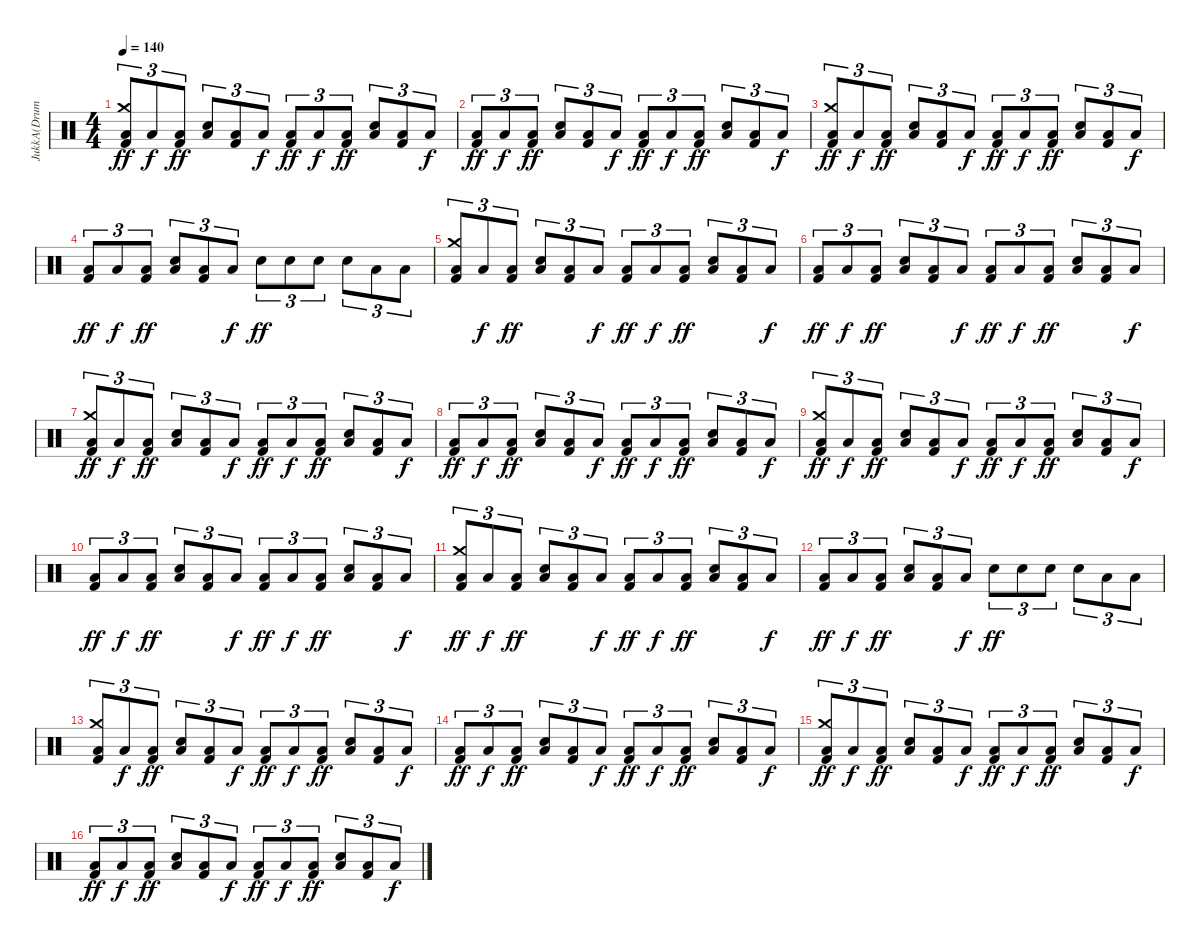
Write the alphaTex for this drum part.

\track ("JukkA(Drums)" "JukkA(Drum") {instrument percussion}
\staff {score}
\articulation defaults
\ts (4 4)
\tempo 140
\clef neutral
\ks c
("Kick (hit) 2" "Crash medium (hit)" "Low Floor Tom (hit)").8{tu (3 2) dy ff} "Low Floor Tom (hit)".8{tu (3 2) dy f} ("Kick (hit) 2" "Low Floor Tom (hit)").8{tu (3 2) dy ff} ("Snare (hit) 2" "Low Floor Tom (hit)").8{tu (3 2)} ("Kick (hit) 2" "Low Floor Tom (hit)").8{tu (3 2)} "Low Floor Tom (hit)".8{tu (3 2) dy f} ("Kick (hit) 2" "Low Floor Tom (hit)").8{tu (3 2) dy ff} "Low Floor Tom (hit)".8{tu (3 2) dy f} ("Kick (hit) 2" "Low Floor Tom (hit)").8{tu (3 2) dy ff} ("Snare (hit) 2" "Low Floor Tom (hit)").8{tu (3 2)} ("Kick (hit) 2" "Low Floor Tom (hit)").8{tu (3 2)} "Low Floor Tom (hit)".8{tu (3 2) dy f} |
("Kick (hit) 2" "Low Floor Tom (hit)").8{tu (3 2) dy ff} "Low Floor Tom (hit)".8{tu (3 2) dy f} ("Kick (hit) 2" "Low Floor Tom (hit)").8{tu (3 2) dy ff} ("Snare (hit) 2" "Low Floor Tom (hit)").8{tu (3 2)} ("Kick (hit) 2" "Low Floor Tom (hit)").8{tu (3 2)} "Low Floor Tom (hit)".8{tu (3 2) dy f} ("Kick (hit) 2" "Low Floor Tom (hit)").8{tu (3 2) dy ff} "Low Floor Tom (hit)".8{tu (3 2) dy f} ("Kick (hit) 2" "Low Floor Tom (hit)").8{tu (3 2) dy ff} ("Snare (hit) 2" "Low Floor Tom (hit)").8{tu (3 2)} ("Kick (hit) 2" "Low Floor Tom (hit)").8{tu (3 2)} "Low Floor Tom (hit)".8{tu (3 2) dy f} |
("Kick (hit) 2" "Crash medium (hit)" "Low Floor Tom (hit)").8{tu (3 2) dy ff} "Low Floor Tom (hit)".8{tu (3 2) dy f} ("Kick (hit) 2" "Low Floor Tom (hit)").8{tu (3 2) dy ff} ("Snare (hit) 2" "Low Floor Tom (hit)").8{tu (3 2)} ("Kick (hit) 2" "Low Floor Tom (hit)").8{tu (3 2)} "Low Floor Tom (hit)".8{tu (3 2) dy f} ("Kick (hit) 2" "Low Floor Tom (hit)").8{tu (3 2) dy ff} "Low Floor Tom (hit)".8{tu (3 2) dy f} ("Kick (hit) 2" "Low Floor Tom (hit)").8{tu (3 2) dy ff} ("Snare (hit) 2" "Low Floor Tom (hit)").8{tu (3 2)} ("Kick (hit) 2" "Low Floor Tom (hit)").8{tu (3 2)} "Low Floor Tom (hit)".8{tu (3 2) dy f} |
("Kick (hit) 2" "Low Floor Tom (hit)").8{tu (3 2) dy ff} "Low Floor Tom (hit)".8{tu (3 2) dy f} ("Kick (hit) 2" "Low Floor Tom (hit)").8{tu (3 2) dy ff} ("Snare (hit) 2" "Low Floor Tom (hit)").8{tu (3 2)} ("Kick (hit) 2" "Low Floor Tom (hit)").8{tu (3 2)} "Low Floor Tom (hit)".8{tu (3 2) dy f} "Snare (hit) 2".8{tu (3 2) dy ff} "Snare (hit) 2".8{tu (3 2)} "Snare (hit) 2".8{tu (3 2)} "Snare (hit) 2".8{tu (3 2)} "Low Tom (hit)".8{tu (3 2)} "Low Floor Tom (hit)".8{tu (3 2)} |
("Kick (hit) 2" "Crash medium (hit)" "Low Floor Tom (hit)").8{tu (3 2)} "Low Floor Tom (hit)".8{tu (3 2) dy f} ("Kick (hit) 2" "Low Floor Tom (hit)").8{tu (3 2) dy ff} ("Snare (hit) 2" "Low Floor Tom (hit)").8{tu (3 2)} ("Kick (hit) 2" "Low Floor Tom (hit)").8{tu (3 2)} "Low Floor Tom (hit)".8{tu (3 2) dy f} ("Kick (hit) 2" "Low Floor Tom (hit)").8{tu (3 2) dy ff} "Low Floor Tom (hit)".8{tu (3 2) dy f} ("Kick (hit) 2" "Low Floor Tom (hit)").8{tu (3 2) dy ff} ("Snare (hit) 2" "Low Floor Tom (hit)").8{tu (3 2)} ("Kick (hit) 2" "Low Floor Tom (hit)").8{tu (3 2)} "Low Floor Tom (hit)".8{tu (3 2) dy f} |
("Kick (hit) 2" "Low Floor Tom (hit)").8{tu (3 2) dy ff} "Low Floor Tom (hit)".8{tu (3 2) dy f} ("Kick (hit) 2" "Low Floor Tom (hit)").8{tu (3 2) dy ff} ("Snare (hit) 2" "Low Floor Tom (hit)").8{tu (3 2)} ("Kick (hit) 2" "Low Floor Tom (hit)").8{tu (3 2)} "Low Floor Tom (hit)".8{tu (3 2) dy f} ("Kick (hit) 2" "Low Floor Tom (hit)").8{tu (3 2) dy ff} "Low Floor Tom (hit)".8{tu (3 2) dy f} ("Kick (hit) 2" "Low Floor Tom (hit)").8{tu (3 2) dy ff} ("Snare (hit) 2" "Low Floor Tom (hit)").8{tu (3 2)} ("Kick (hit) 2" "Low Floor Tom (hit)").8{tu (3 2)} "Low Floor Tom (hit)".8{tu (3 2) dy f} |
("Kick (hit) 2" "Crash medium (hit)" "Low Floor Tom (hit)").8{tu (3 2) dy ff} "Low Floor Tom (hit)".8{tu (3 2) dy f} ("Kick (hit) 2" "Low Floor Tom (hit)").8{tu (3 2) dy ff} ("Snare (hit) 2" "Low Floor Tom (hit)").8{tu (3 2)} ("Kick (hit) 2" "Low Floor Tom (hit)").8{tu (3 2)} "Low Floor Tom (hit)".8{tu (3 2) dy f} ("Kick (hit) 2" "Low Floor Tom (hit)").8{tu (3 2) dy ff} "Low Floor Tom (hit)".8{tu (3 2) dy f} ("Kick (hit) 2" "Low Floor Tom (hit)").8{tu (3 2) dy ff} ("Snare (hit) 2" "Low Floor Tom (hit)").8{tu (3 2)} ("Kick (hit) 2" "Low Floor Tom (hit)").8{tu (3 2)} "Low Floor Tom (hit)".8{tu (3 2) dy f} |
("Kick (hit) 2" "Low Floor Tom (hit)").8{tu (3 2) dy ff} "Low Floor Tom (hit)".8{tu (3 2) dy f} ("Kick (hit) 2" "Low Floor Tom (hit)").8{tu (3 2) dy ff} ("Snare (hit) 2" "Low Floor Tom (hit)").8{tu (3 2)} ("Kick (hit) 2" "Low Floor Tom (hit)").8{tu (3 2)} "Low Floor Tom (hit)".8{tu (3 2) dy f} ("Kick (hit) 2" "Low Floor Tom (hit)").8{tu (3 2) dy ff} "Low Floor Tom (hit)".8{tu (3 2) dy f} ("Kick (hit) 2" "Low Floor Tom (hit)").8{tu (3 2) dy ff} ("Snare (hit) 2" "Low Floor Tom (hit)").8{tu (3 2)} ("Kick (hit) 2" "Low Floor Tom (hit)").8{tu (3 2)} "Low Floor Tom (hit)".8{tu (3 2) dy f} |
("Kick (hit) 2" "Crash medium (hit)" "Low Floor Tom (hit)").8{tu (3 2) dy ff volume 13} "Low Floor Tom (hit)".8{tu (3 2) dy f} ("Kick (hit) 2" "Low Floor Tom (hit)").8{tu (3 2) dy ff volume 12} ("Snare (hit) 2" "Low Floor Tom (hit)").8{tu (3 2)} ("Kick (hit) 2" "Low Floor Tom (hit)").8{tu (3 2)} "Low Floor Tom (hit)".8{tu (3 2) dy f} ("Kick (hit) 2" "Low Floor Tom (hit)").8{tu (3 2) dy ff} "Low Floor Tom (hit)".8{tu (3 2) dy f} ("Kick (hit) 2" "Low Floor Tom (hit)").8{tu (3 2) dy ff} ("Snare (hit) 2" "Low Floor Tom (hit)").8{tu (3 2)} ("Kick (hit) 2" "Low Floor Tom (hit)").8{tu (3 2)} "Low Floor Tom (hit)".8{tu (3 2) dy f} |
("Kick (hit) 2" "Low Floor Tom (hit)").8{tu (3 2) dy ff} "Low Floor Tom (hit)".8{tu (3 2) dy f} ("Kick (hit) 2" "Low Floor Tom (hit)").8{tu (3 2) dy ff volume 11} ("Snare (hit) 2" "Low Floor Tom (hit)").8{tu (3 2)} ("Kick (hit) 2" "Low Floor Tom (hit)").8{tu (3 2)} "Low Floor Tom (hit)".8{tu (3 2) dy f} ("Kick (hit) 2" "Low Floor Tom (hit)").8{tu (3 2) dy ff} "Low Floor Tom (hit)".8{tu (3 2) dy f} ("Kick (hit) 2" "Low Floor Tom (hit)").8{tu (3 2) dy ff} ("Snare (hit) 2" "Low Floor Tom (hit)").8{tu (3 2)} ("Kick (hit) 2" "Low Floor Tom (hit)").8{tu (3 2)} "Low Floor Tom (hit)".8{tu (3 2) dy f} |
("Kick (hit) 2" "Crash medium (hit)" "Low Floor Tom (hit)").8{tu (3 2) dy ff volume 10} "Low Floor Tom (hit)".8{tu (3 2) dy f} ("Kick (hit) 2" "Low Floor Tom (hit)").8{tu (3 2) dy ff} ("Snare (hit) 2" "Low Floor Tom (hit)").8{tu (3 2)} ("Kick (hit) 2" "Low Floor Tom (hit)").8{tu (3 2)} "Low Floor Tom (hit)".8{tu (3 2) dy f} ("Kick (hit) 2" "Low Floor Tom (hit)").8{tu (3 2) dy ff} "Low Floor Tom (hit)".8{tu (3 2) dy f} ("Kick (hit) 2" "Low Floor Tom (hit)").8{tu (3 2) dy ff} ("Snare (hit) 2" "Low Floor Tom (hit)").8{tu (3 2)} ("Kick (hit) 2" "Low Floor Tom (hit)").8{tu (3 2)} "Low Floor Tom (hit)".8{tu (3 2) dy f} |
("Kick (hit) 2" "Low Floor Tom (hit)").8{tu (3 2) dy ff} "Low Floor Tom (hit)".8{tu (3 2) dy f} ("Kick (hit) 2" "Low Floor Tom (hit)").8{tu (3 2) dy ff volume 9} ("Snare (hit) 2" "Low Floor Tom (hit)").8{tu (3 2)} ("Kick (hit) 2" "Low Floor Tom (hit)").8{tu (3 2)} "Low Floor Tom (hit)".8{tu (3 2) dy f} "Snare (hit) 2".8{tu (3 2) dy ff} "Snare (hit) 2".8{tu (3 2)} "Snare (hit) 2".8{tu (3 2)} "Snare (hit) 2".8{tu (3 2)} "Low Tom (hit)".8{tu (3 2)} "Low Floor Tom (hit)".8{tu (3 2) volume 8} |
("Kick (hit) 2" "Crash medium (hit)" "Low Floor Tom (hit)").8{tu (3 2)} "Low Floor Tom (hit)".8{tu (3 2) dy f} ("Kick (hit) 2" "Low Floor Tom (hit)").8{tu (3 2) dy ff} ("Snare (hit) 2" "Low Floor Tom (hit)").8{tu (3 2)} ("Kick (hit) 2" "Low Floor Tom (hit)").8{tu (3 2)} "Low Floor Tom (hit)".8{tu (3 2) dy f} ("Kick (hit) 2" "Low Floor Tom (hit)").8{tu (3 2) dy ff} "Low Floor Tom (hit)".8{tu (3 2) dy f} ("Kick (hit) 2" "Low Floor Tom (hit)").8{tu (3 2) dy ff} ("Snare (hit) 2" "Low Floor Tom (hit)").8{tu (3 2)} ("Kick (hit) 2" "Low Floor Tom (hit)").8{tu (3 2)} "Low Floor Tom (hit)".8{tu (3 2) dy f} |
("Kick (hit) 2" "Low Floor Tom (hit)").8{tu (3 2) dy ff volume 7} "Low Floor Tom (hit)".8{tu (3 2) dy f} ("Kick (hit) 2" "Low Floor Tom (hit)").8{tu (3 2) dy ff} ("Snare (hit) 2" "Low Floor Tom (hit)").8{tu (3 2)} ("Kick (hit) 2" "Low Floor Tom (hit)").8{tu (3 2)} "Low Floor Tom (hit)".8{tu (3 2) dy f} ("Kick (hit) 2" "Low Floor Tom (hit)").8{tu (3 2) dy ff} "Low Floor Tom (hit)".8{tu (3 2) dy f} ("Kick (hit) 2" "Low Floor Tom (hit)").8{tu (3 2) dy ff} ("Snare (hit) 2" "Low Floor Tom (hit)").8{tu (3 2) volume 6} ("Kick (hit) 2" "Low Floor Tom (hit)").8{tu (3 2)} "Low Floor Tom (hit)".8{tu (3 2) dy f} |
("Kick (hit) 2" "Crash medium (hit)" "Low Floor Tom (hit)").8{tu (3 2) dy ff} "Low Floor Tom (hit)".8{tu (3 2) dy f} ("Kick (hit) 2" "Low Floor Tom (hit)").8{tu (3 2) dy ff} ("Snare (hit) 2" "Low Floor Tom (hit)").8{tu (3 2)} ("Kick (hit) 2" "Low Floor Tom (hit)").8{tu (3 2)} "Low Floor Tom (hit)".8{tu (3 2) dy f} ("Kick (hit) 2" "Low Floor Tom (hit)").8{tu (3 2) dy ff} "Low Floor Tom (hit)".8{tu (3 2) dy f} ("Kick (hit) 2" "Low Floor Tom (hit)").8{tu (3 2) dy ff} ("Snare (hit) 2" "Low Floor Tom (hit)").8{tu (3 2)} ("Kick (hit) 2" "Low Floor Tom (hit)").8{tu (3 2) volume 5} "Low Floor Tom (hit)".8{tu (3 2) dy f} |
("Kick (hit) 2" "Low Floor Tom (hit)").8{tu (3 2) dy ff} "Low Floor Tom (hit)".8{tu (3 2) dy f} ("Kick (hit) 2" "Low Floor Tom (hit)").8{tu (3 2) dy ff} ("Snare (hit) 2" "Low Floor Tom (hit)").8{tu (3 2)} ("Kick (hit) 2" "Low Floor Tom (hit)").8{tu (3 2)} "Low Floor Tom (hit)".8{tu (3 2) dy f} ("Kick (hit) 2" "Low Floor Tom (hit)").8{tu (3 2) dy ff} "Low Floor Tom (hit)".8{tu (3 2) dy f} ("Kick (hit) 2" "Low Floor Tom (hit)").8{tu (3 2) dy ff volume 4} ("Snare (hit) 2" "Low Floor Tom (hit)").8{tu (3 2)} ("Kick (hit) 2" "Low Floor Tom (hit)").8{tu (3 2)} "Low Floor Tom (hit)".8{tu (3 2) dy f}
